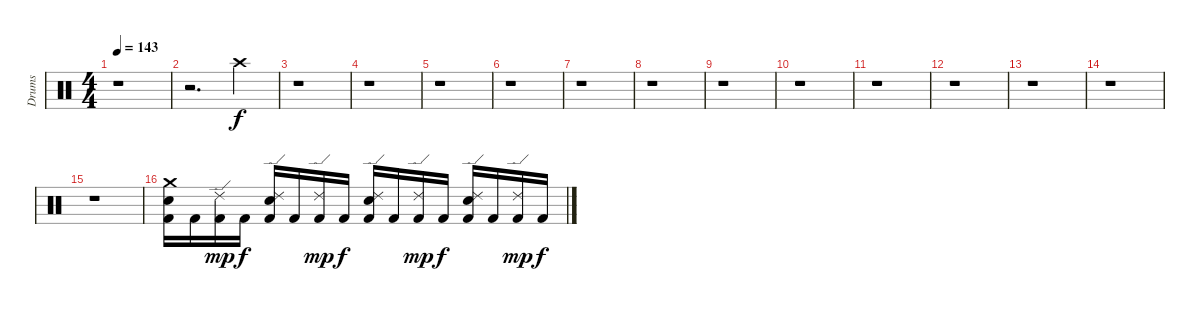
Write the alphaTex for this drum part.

\track ("Drums" "Drums") {instrument percussion}
\staff {score}
\articulation defaults
\ts (4 4)
\tempo 143
\clef neutral
\ks c
r.1{dy f} |
r.2{d} "Crash high (hit)".4 |
r.1 |
r.1 |
r.1 |
r.1 |
r.1 |
r.1 |
r.1 |
r.1 |
r.1 |
r.1 |
r.1 |
r.1 |
r.1 |
("Kick (hit) 2" "Electric Snare (hit)" "Crash medium (hit)").16 "Kick (hit) 2".16 ("Kick (hit) 2" "Ride (edge) 2").16{dy mp} "Kick (hit) 2".16{dy f} ("Kick (hit) 2" "Electric Snare (hit)" "Ride (edge) 2").16 "Kick (hit) 2".16 ("Kick (hit) 2" "Ride (edge) 2").16{dy mp} "Kick (hit) 2".16{dy f} ("Kick (hit) 2" "Electric Snare (hit)" "Ride (edge) 2").16 "Kick (hit) 2".16 ("Kick (hit) 2" "Ride (edge) 2").16{dy mp} "Kick (hit) 2".16{dy f} ("Kick (hit) 2" "Electric Snare (hit)" "Ride (edge) 2").16 "Kick (hit) 2".16 ("Kick (hit) 2" "Ride (edge) 2").16{dy mp} "Kick (hit) 2".16{dy f}
